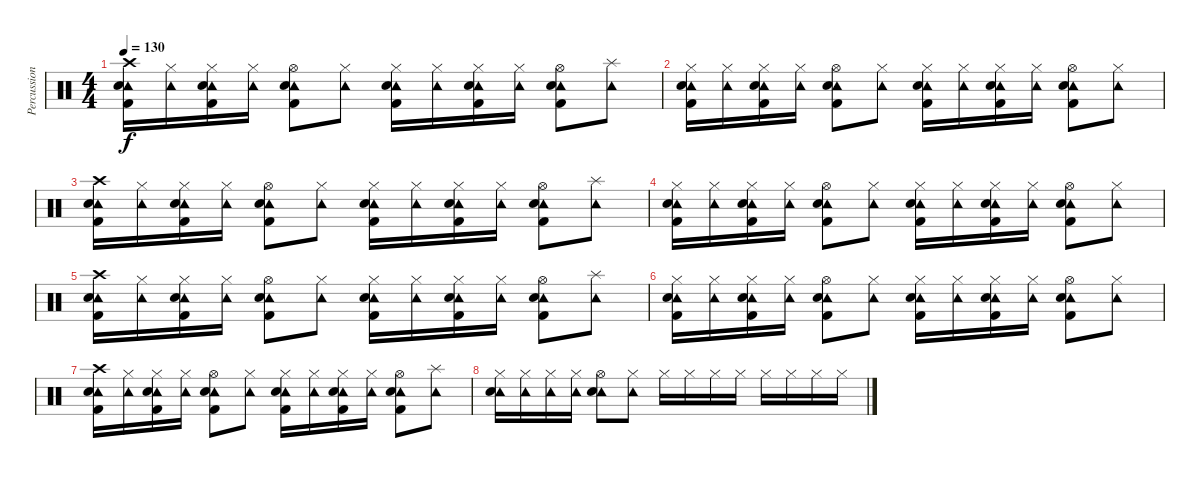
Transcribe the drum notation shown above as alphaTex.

\track ("Percussion" "Percussion") {instrument percussion}
\staff {score}
\articulation defaults
\ts (4 4)
\tempo 130
\clef neutral
\ks c
("Crash high (hit)" "Tambourine (hit)" "Electric Snare (hit)" "Kick (hit) 2").16{dy f volume 16} ("Hi-Hat (closed)" "Tambourine (hit)").16 ("Hi-Hat (closed)" "Tambourine (hit)" "Electric Snare (hit)" "Kick (hit) 2").16 ("Hi-Hat (closed)" "Tambourine (hit)").16 ("Hi-Hat (open)" "Tambourine (hit)" "Electric Snare (hit)" "Kick (hit) 2").8 ("Hi-Hat (closed)" "Tambourine (hit)").8 ("Hi-Hat (closed)" "Tambourine (hit)" "Electric Snare (hit)" "Kick (hit) 2").16 ("Hi-Hat (closed)" "Tambourine (hit)").16 ("Hi-Hat (closed)" "Tambourine (hit)" "Electric Snare (hit)" "Kick (hit) 2").16 ("Hi-Hat (closed)" "Tambourine (hit)").16 ("Hi-Hat (open)" "Tambourine (hit)" "Electric Snare (hit)" "Kick (hit) 2").8 ("Splash (hit)" "Tambourine (hit)").8 |
("Hi-Hat (closed)" "Tambourine (hit)" "Electric Snare (hit)" "Kick (hit) 2").16 ("Hi-Hat (closed)" "Tambourine (hit)").16 ("Hi-Hat (closed)" "Tambourine (hit)" "Electric Snare (hit)" "Kick (hit) 2").16 ("Hi-Hat (closed)" "Tambourine (hit)").16 ("Hi-Hat (open)" "Tambourine (hit)" "Electric Snare (hit)" "Kick (hit) 2").8 ("Hi-Hat (closed)" "Tambourine (hit)").8 ("Hi-Hat (closed)" "Tambourine (hit)" "Electric Snare (hit)" "Kick (hit) 2").16 ("Hi-Hat (closed)" "Tambourine (hit)").16 ("Hi-Hat (closed)" "Tambourine (hit)" "Electric Snare (hit)" "Kick (hit) 2").16 ("Hi-Hat (closed)" "Tambourine (hit)").16 ("Hi-Hat (open)" "Tambourine (hit)" "Electric Snare (hit)" "Kick (hit) 2").8 ("Hi-Hat (closed)" "Tambourine (hit)").8 |
("Crash high (hit)" "Tambourine (hit)" "Electric Snare (hit)" "Kick (hit) 2").16{volume 16} ("Hi-Hat (closed)" "Tambourine (hit)").16 ("Hi-Hat (closed)" "Tambourine (hit)" "Electric Snare (hit)" "Kick (hit) 2").16 ("Hi-Hat (closed)" "Tambourine (hit)").16 ("Hi-Hat (open)" "Tambourine (hit)" "Electric Snare (hit)" "Kick (hit) 2").8 ("Hi-Hat (closed)" "Tambourine (hit)").8 ("Hi-Hat (closed)" "Tambourine (hit)" "Electric Snare (hit)" "Kick (hit) 2").16 ("Hi-Hat (closed)" "Tambourine (hit)").16 ("Hi-Hat (closed)" "Tambourine (hit)" "Electric Snare (hit)" "Kick (hit) 2").16 ("Hi-Hat (closed)" "Tambourine (hit)").16 ("Hi-Hat (open)" "Tambourine (hit)" "Electric Snare (hit)" "Kick (hit) 2").8 ("Splash (hit)" "Tambourine (hit)").8 |
("Hi-Hat (closed)" "Tambourine (hit)" "Electric Snare (hit)" "Kick (hit) 2").16 ("Hi-Hat (closed)" "Tambourine (hit)").16 ("Hi-Hat (closed)" "Tambourine (hit)" "Electric Snare (hit)" "Kick (hit) 2").16 ("Hi-Hat (closed)" "Tambourine (hit)").16 ("Hi-Hat (open)" "Tambourine (hit)" "Electric Snare (hit)" "Kick (hit) 2").8 ("Hi-Hat (closed)" "Tambourine (hit)").8 ("Hi-Hat (closed)" "Tambourine (hit)" "Electric Snare (hit)" "Kick (hit) 2").16 ("Hi-Hat (closed)" "Tambourine (hit)").16 ("Hi-Hat (closed)" "Tambourine (hit)" "Electric Snare (hit)" "Kick (hit) 2").16 ("Hi-Hat (closed)" "Tambourine (hit)").16 ("Hi-Hat (open)" "Tambourine (hit)" "Electric Snare (hit)" "Kick (hit) 2").8 ("Hi-Hat (closed)" "Tambourine (hit)").8 |
("Crash high (hit)" "Tambourine (hit)" "Electric Snare (hit)" "Kick (hit) 2").16{volume 16} ("Hi-Hat (closed)" "Tambourine (hit)").16 ("Hi-Hat (closed)" "Tambourine (hit)" "Electric Snare (hit)" "Kick (hit) 2").16 ("Hi-Hat (closed)" "Tambourine (hit)").16 ("Hi-Hat (open)" "Tambourine (hit)" "Electric Snare (hit)" "Kick (hit) 2").8 ("Hi-Hat (closed)" "Tambourine (hit)").8 ("Hi-Hat (closed)" "Tambourine (hit)" "Electric Snare (hit)" "Kick (hit) 2").16 ("Hi-Hat (closed)" "Tambourine (hit)").16 ("Hi-Hat (closed)" "Tambourine (hit)" "Electric Snare (hit)" "Kick (hit) 2").16 ("Hi-Hat (closed)" "Tambourine (hit)").16 ("Hi-Hat (open)" "Tambourine (hit)" "Electric Snare (hit)" "Kick (hit) 2").8 ("Splash (hit)" "Tambourine (hit)").8 |
("Hi-Hat (closed)" "Tambourine (hit)" "Electric Snare (hit)" "Kick (hit) 2").16 ("Hi-Hat (closed)" "Tambourine (hit)").16 ("Hi-Hat (closed)" "Tambourine (hit)" "Electric Snare (hit)" "Kick (hit) 2").16 ("Hi-Hat (closed)" "Tambourine (hit)").16 ("Hi-Hat (open)" "Tambourine (hit)" "Electric Snare (hit)" "Kick (hit) 2").8 ("Hi-Hat (closed)" "Tambourine (hit)").8 ("Hi-Hat (closed)" "Tambourine (hit)" "Electric Snare (hit)" "Kick (hit) 2").16 ("Hi-Hat (closed)" "Tambourine (hit)").16 ("Hi-Hat (closed)" "Tambourine (hit)" "Electric Snare (hit)" "Kick (hit) 2").16 ("Hi-Hat (closed)" "Tambourine (hit)").16 ("Hi-Hat (open)" "Tambourine (hit)" "Electric Snare (hit)" "Kick (hit) 2").8 ("Hi-Hat (closed)" "Tambourine (hit)").8 |
("Crash high (hit)" "Tambourine (hit)" "Electric Snare (hit)" "Kick (hit) 2").16{volume 16} ("Hi-Hat (closed)" "Tambourine (hit)").16 ("Hi-Hat (closed)" "Tambourine (hit)" "Electric Snare (hit)" "Kick (hit) 2").16 ("Hi-Hat (closed)" "Tambourine (hit)").16 ("Hi-Hat (open)" "Tambourine (hit)" "Electric Snare (hit)" "Kick (hit) 2").8 ("Hi-Hat (closed)" "Tambourine (hit)").8 ("Hi-Hat (closed)" "Tambourine (hit)" "Electric Snare (hit)" "Kick (hit) 2").16 ("Hi-Hat (closed)" "Tambourine (hit)").16 ("Hi-Hat (closed)" "Tambourine (hit)" "Electric Snare (hit)" "Kick (hit) 2").16 ("Hi-Hat (closed)" "Tambourine (hit)").16 ("Hi-Hat (open)" "Tambourine (hit)" "Electric Snare (hit)" "Kick (hit) 2").8 ("Splash (hit)" "Tambourine (hit)").8 |
("Hi-Hat (closed)" "Tambourine (hit)" "Electric Snare (hit)").16 ("Hi-Hat (closed)" "Tambourine (hit)").16 ("Hi-Hat (closed)" "Tambourine (hit)").16 ("Hi-Hat (closed)" "Tambourine (hit)").16 ("Hi-Hat (open)" "Tambourine (hit)" "Electric Snare (hit)").8 ("Hi-Hat (closed)" "Tambourine (hit)").8 "Hi-Hat (closed)".16 "Hi-Hat (closed)".16 "Hi-Hat (closed)".16 "Hi-Hat (closed)".16 "Hi-Hat (closed)".16 "Hi-Hat (closed)".16 "Hi-Hat (closed)".16 "Hi-Hat (closed)".16
